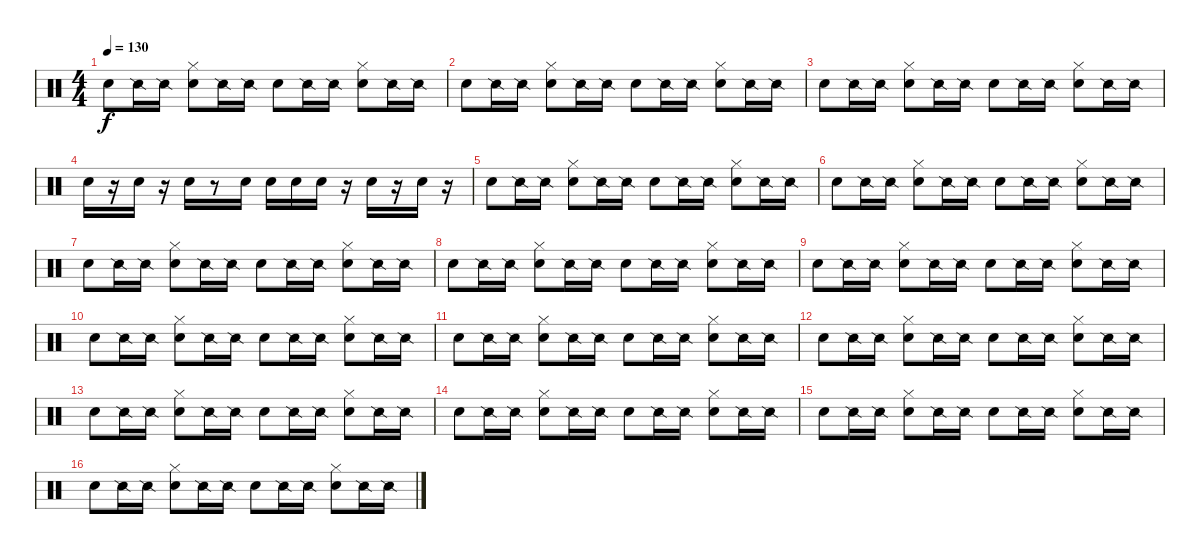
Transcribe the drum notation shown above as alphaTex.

\track "" {instrument percussion}
\staff {score}
\articulation defaults
\ts (4 4)
\tempo 130
\clef neutral
\ks c "Snare (hit)".8{dy f} "Snare (side stick) 2".16 "Snare (side stick) 2".16
("Snare (hit)" "Hi-Hat (closed)").8 "Snare (side stick) 2".16 "Snare (side stick) 2".16 "Snare (hit)".8 "Snare (side stick) 2".16 "Snare (side stick) 2".16 ("Snare (hit)" "Hi-Hat (closed)").8 "Snare (side stick) 2".16 "Snare (side stick) 2".16 |
"Snare (hit)".8 "Snare (side stick) 2".16 "Snare (side stick) 2".16 ("Snare (hit)" "Hi-Hat (closed)").8 "Snare (side stick) 2".16 "Snare (side stick) 2".16 "Snare (hit)".8 "Snare (side stick) 2".16 "Snare (side stick) 2".16 ("Snare (hit)" "Hi-Hat (closed)").8 "Snare (side stick) 2".16 "Snare (side stick) 2".16 |
"Snare (hit)".8 "Snare (side stick) 2".16 "Snare (side stick) 2".16 ("Snare (hit)" "Hi-Hat (closed)").8 "Snare (side stick) 2".16 "Snare (side stick) 2".16 "Snare (hit)".8 "Snare (side stick) 2".16 "Snare (side stick) 2".16 ("Snare (hit)" "Hi-Hat (closed)").8 "Snare (side stick) 2".16 "Snare (side stick) 2".16 |
"Snare (hit)".16 r.16 "Snare (hit)".16 r.16 "Snare (hit)".16 r.8 "Snare (hit)".16 "Snare (hit)".16 "Snare (hit)".16 "Snare (hit)".16 r.16 "Snare (hit)".16 r.16 "Snare (hit)".16 r.16 |
"Snare (hit)".8 "Snare (side stick) 2".16 "Snare (side stick) 2".16 ("Snare (hit)" "Hi-Hat (closed)").8 "Snare (side stick) 2".16 "Snare (side stick) 2".16 "Snare (hit)".8 "Snare (side stick) 2".16 "Snare (side stick) 2".16 ("Snare (hit)" "Hi-Hat (closed)").8 "Snare (side stick) 2".16 "Snare (side stick) 2".16 |
"Snare (hit)".8 "Snare (side stick) 2".16 "Snare (side stick) 2".16 ("Snare (hit)" "Hi-Hat (closed)").8 "Snare (side stick) 2".16 "Snare (side stick) 2".16 "Snare (hit)".8 "Snare (side stick) 2".16 "Snare (side stick) 2".16 ("Snare (hit)" "Hi-Hat (closed)").8 "Snare (side stick) 2".16 "Snare (side stick) 2".16 |
"Snare (hit)".8 "Snare (side stick) 2".16 "Snare (side stick) 2".16 ("Snare (hit)" "Hi-Hat (closed)").8 "Snare (side stick) 2".16 "Snare (side stick) 2".16 "Snare (hit)".8 "Snare (side stick) 2".16 "Snare (side stick) 2".16 ("Snare (hit)" "Hi-Hat (closed)").8 "Snare (side stick) 2".16 "Snare (side stick) 2".16 |
"Snare (hit)".8 "Snare (side stick) 2".16 "Snare (side stick) 2".16 ("Snare (hit)" "Hi-Hat (closed)").8 "Snare (side stick) 2".16 "Snare (side stick) 2".16 "Snare (hit)".8 "Snare (side stick) 2".16 "Snare (side stick) 2".16 ("Snare (hit)" "Hi-Hat (closed)").8 "Snare (side stick) 2".16 "Snare (side stick) 2".16 |
"Snare (hit)".8 "Snare (side stick) 2".16 "Snare (side stick) 2".16 ("Snare (hit)" "Hi-Hat (closed)").8 "Snare (side stick) 2".16 "Snare (side stick) 2".16 "Snare (hit)".8 "Snare (side stick) 2".16 "Snare (side stick) 2".16 ("Snare (hit)" "Hi-Hat (closed)").8 "Snare (side stick) 2".16 "Snare (side stick) 2".16 |
"Snare (hit)".8 "Snare (side stick) 2".16 "Snare (side stick) 2".16 ("Snare (hit)" "Hi-Hat (closed)").8 "Snare (side stick) 2".16 "Snare (side stick) 2".16 "Snare (hit)".8 "Snare (side stick) 2".16 "Snare (side stick) 2".16 ("Snare (hit)" "Hi-Hat (closed)").8 "Snare (side stick) 2".16 "Snare (side stick) 2".16 |
"Snare (hit)".8 "Snare (side stick) 2".16 "Snare (side stick) 2".16 ("Snare (hit)" "Hi-Hat (closed)").8 "Snare (side stick) 2".16 "Snare (side stick) 2".16 "Snare (hit)".8 "Snare (side stick) 2".16 "Snare (side stick) 2".16 ("Snare (hit)" "Hi-Hat (closed)").8 "Snare (side stick) 2".16 "Snare (side stick) 2".16 |
"Snare (hit)".8 "Snare (side stick) 2".16 "Snare (side stick) 2".16 ("Snare (hit)" "Hi-Hat (closed)").8 "Snare (side stick) 2".16 "Snare (side stick) 2".16 "Snare (hit)".8 "Snare (side stick) 2".16 "Snare (side stick) 2".16 ("Snare (hit)" "Hi-Hat (closed)").8 "Snare (side stick) 2".16 "Snare (side stick) 2".16 |
"Snare (hit)".8 "Snare (side stick) 2".16 "Snare (side stick) 2".16 ("Snare (hit)" "Hi-Hat (closed)").8 "Snare (side stick) 2".16 "Snare (side stick) 2".16 "Snare (hit)".8 "Snare (side stick) 2".16 "Snare (side stick) 2".16 ("Snare (hit)" "Hi-Hat (closed)").8 "Snare (side stick) 2".16 "Snare (side stick) 2".16 |
"Snare (hit)".8 "Snare (side stick) 2".16 "Snare (side stick) 2".16 ("Snare (hit)" "Hi-Hat (closed)").8 "Snare (side stick) 2".16 "Snare (side stick) 2".16 "Snare (hit)".8 "Snare (side stick) 2".16 "Snare (side stick) 2".16 ("Snare (hit)" "Hi-Hat (closed)").8 "Snare (side stick) 2".16 "Snare (side stick) 2".16 |
"Snare (hit)".8 "Snare (side stick) 2".16 "Snare (side stick) 2".16 ("Snare (hit)" "Hi-Hat (closed)").8 "Snare (side stick) 2".16 "Snare (side stick) 2".16 "Snare (hit)".8 "Snare (side stick) 2".16 "Snare (side stick) 2".16 ("Snare (hit)" "Hi-Hat (closed)").8 "Snare (side stick) 2".16 "Snare (side stick) 2".16 |
"Snare (hit)".8 "Snare (side stick) 2".16 "Snare (side stick) 2".16 ("Snare (hit)" "Hi-Hat (closed)").8 "Snare (side stick) 2".16 "Snare (side stick) 2".16 "Snare (hit)".8 "Snare (side stick) 2".16 "Snare (side stick) 2".16 ("Snare (hit)" "Hi-Hat (closed)").8 "Snare (side stick) 2".16 "Snare (side stick) 2".16
